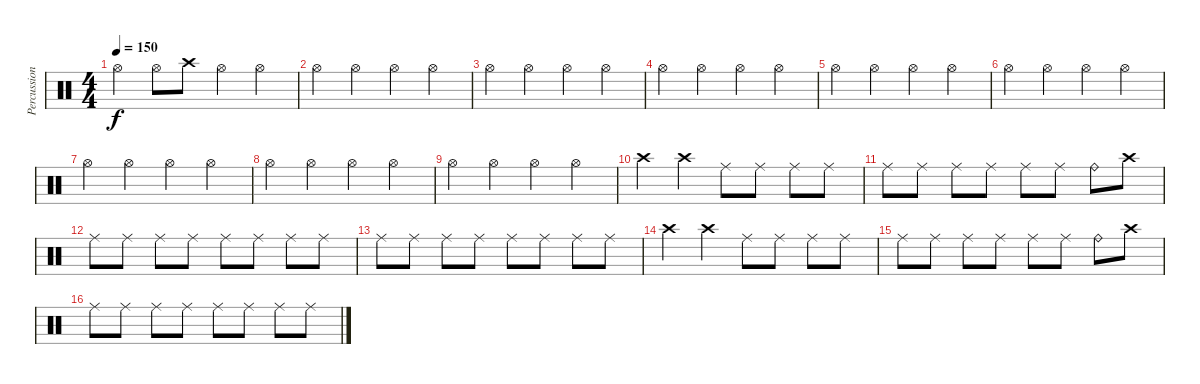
\track ("Percussion Cymbals" "Percussion") {instrument percussion}
\staff {score}
\articulation defaults
\ts (4 4)
\tempo 150
\clef neutral
\ks c "Hi-Hat (open)".4{dy f} "Hi-Hat (open)".8 "Crash high (hit)".8 "Hi-Hat (open)".4 "Hi-Hat (open)".4
|
"Hi-Hat (open)".4 "Hi-Hat (open)".4 "Hi-Hat (open)".4 "Hi-Hat (open)".4 |
"Hi-Hat (open)".4 "Hi-Hat (open)".4 "Hi-Hat (open)".4 "Hi-Hat (open)".4 |
"Hi-Hat (open)".4 "Hi-Hat (open)".4 "Hi-Hat (open)".4 "Hi-Hat (open)".4 |
"Hi-Hat (open)".4 "Hi-Hat (open)".4 "Hi-Hat (open)".4 "Hi-Hat (open)".4 |
"Hi-Hat (open)".4 "Hi-Hat (open)".4 "Hi-Hat (open)".4 "Hi-Hat (open)".4 |
"Hi-Hat (open)".4 "Hi-Hat (open)".4 "Hi-Hat (open)".4 "Hi-Hat (open)".4 |
"Hi-Hat (open)".4 "Hi-Hat (open)".4 "Hi-Hat (open)".4 "Hi-Hat (open)".4 |
"Hi-Hat (open)".4 "Hi-Hat (open)".4 "Hi-Hat (open)".4 "Hi-Hat (open)".4 |
"Crash high (hit)".4 "Crash high (hit)".4 "Ride (middle)".8 "Ride (middle)".8 "Ride (middle)".8 "Ride (middle)".8 |
"Ride (middle)".8 "Ride (middle)".8 "Ride (middle)".8 "Ride (middle)".8 "Ride (middle)".8 "Ride (middle)".8 "Ride (bell)".8 "Crash high (hit)".8 |
"Ride (middle)".8 "Ride (middle)".8 "Ride (middle)".8 "Ride (middle)".8 "Ride (middle)".8 "Ride (middle)".8 "Ride (middle)".8 "Ride (middle)".8 |
"Ride (middle)".8 "Ride (middle)".8 "Ride (middle)".8 "Ride (middle)".8 "Ride (middle)".8 "Ride (middle)".8 "Ride (middle)".8 "Ride (middle)".8 |
"Crash high (hit)".4 "Crash high (hit)".4 "Ride (middle)".8 "Ride (middle)".8 "Ride (middle)".8 "Ride (middle)".8 |
"Ride (middle)".8 "Ride (middle)".8 "Ride (middle)".8 "Ride (middle)".8 "Ride (middle)".8 "Ride (middle)".8 "Ride (bell)".8 "Crash high (hit)".8 |
"Ride (middle)".8 "Ride (middle)".8 "Ride (middle)".8 "Ride (middle)".8 "Ride (middle)".8 "Ride (middle)".8 "Ride (middle)".8 "Ride (middle)".8
